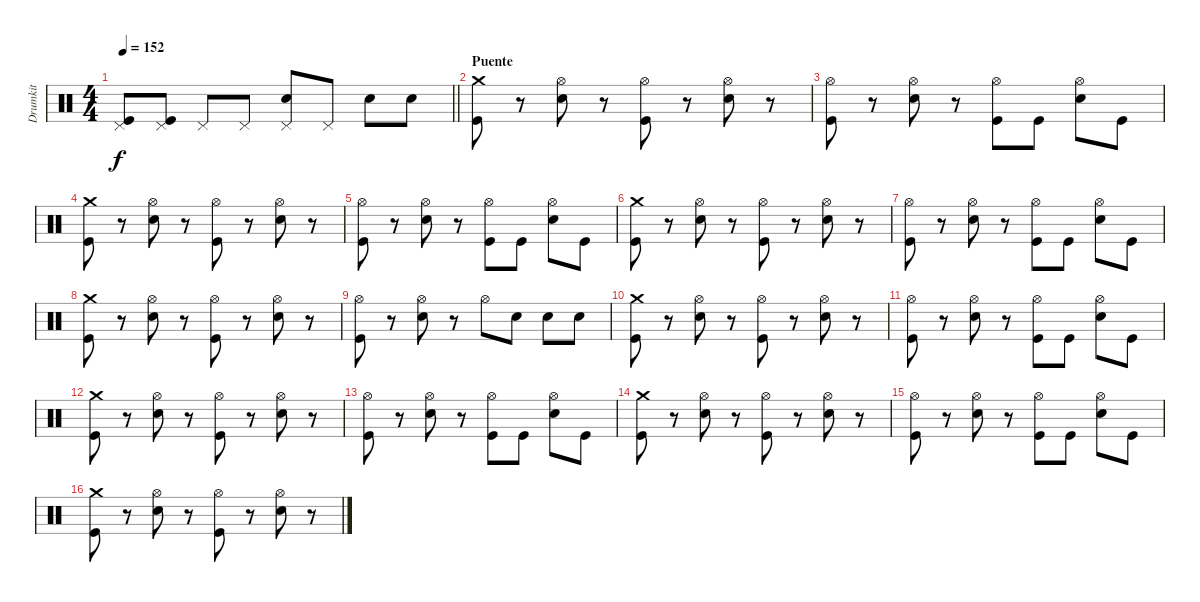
\track ("Drumkit" "Drumkit") {instrument percussion}
\staff {score}
\articulation defaults
\ts (4 4)
\tempo 152
\clef neutral
\barLineRight lightlight
\ks c
("Pedal Hi-Hat (hit)" "Kick (hit)").8{dy f} ("Pedal Hi-Hat (hit)" "Kick (hit)").8 "Pedal Hi-Hat (hit)".8 "Pedal Hi-Hat (hit)".8 ("Pedal Hi-Hat (hit)" "Snare (hit) 2").8 "Pedal Hi-Hat (hit)".8 "Snare (hit) 2".8 "Snare (hit) 2".8 |
\section ("" "Puente")
("Crash medium (hit)" "Kick (hit)").8 r.8 ("Hi-Hat (open)" "Snare (hit) 2").8 r.8 ("Hi-Hat (open)" "Kick (hit)").8 r.8 ("Hi-Hat (open)" "Snare (hit) 2").8 r.8 |
("Hi-Hat (open)" "Kick (hit)").8 r.8 ("Hi-Hat (open)" "Snare (hit) 2").8 r.8 ("Hi-Hat (open)" "Kick (hit)").8 "Kick (hit)".8 ("Hi-Hat (open)" "Snare (hit) 2").8 "Kick (hit)".8 |
("Crash medium (hit)" "Kick (hit)").8 r.8 ("Hi-Hat (open)" "Snare (hit) 2").8 r.8 ("Hi-Hat (open)" "Kick (hit)").8 r.8 ("Hi-Hat (open)" "Snare (hit) 2").8 r.8 |
("Hi-Hat (open)" "Kick (hit)").8 r.8 ("Hi-Hat (open)" "Snare (hit) 2").8 r.8 ("Hi-Hat (open)" "Kick (hit)").8 "Kick (hit)".8 ("Hi-Hat (open)" "Snare (hit) 2").8 "Kick (hit)".8 |
("Crash medium (hit)" "Kick (hit)").8 r.8 ("Hi-Hat (open)" "Snare (hit) 2").8 r.8 ("Hi-Hat (open)" "Kick (hit)").8 r.8 ("Hi-Hat (open)" "Snare (hit) 2").8 r.8 |
("Hi-Hat (open)" "Kick (hit)").8 r.8 ("Hi-Hat (open)" "Snare (hit) 2").8 r.8 ("Hi-Hat (open)" "Kick (hit)").8 "Kick (hit)".8 ("Hi-Hat (open)" "Snare (hit) 2").8 "Kick (hit)".8 |
("Crash medium (hit)" "Kick (hit)").8 r.8 ("Hi-Hat (open)" "Snare (hit) 2").8 r.8 ("Hi-Hat (open)" "Kick (hit)").8 r.8 ("Hi-Hat (open)" "Snare (hit) 2").8 r.8 |
("Hi-Hat (open)" "Kick (hit)").8 r.8 ("Hi-Hat (open)" "Snare (hit) 2").8 r.8 "Hi-Hat (open)".8 "Snare (hit) 2".8 "Snare (hit) 2".8 "Snare (hit) 2".8 |
("Crash medium (hit)" "Kick (hit)").8 r.8 ("Hi-Hat (open)" "Snare (hit) 2").8 r.8 ("Hi-Hat (open)" "Kick (hit)").8 r.8 ("Hi-Hat (open)" "Snare (hit) 2").8 r.8 |
("Hi-Hat (open)" "Kick (hit)").8 r.8 ("Hi-Hat (open)" "Snare (hit) 2").8 r.8 ("Hi-Hat (open)" "Kick (hit)").8 "Kick (hit)".8 ("Hi-Hat (open)" "Snare (hit) 2").8 "Kick (hit)".8 |
("Crash medium (hit)" "Kick (hit)").8 r.8 ("Hi-Hat (open)" "Snare (hit) 2").8 r.8 ("Hi-Hat (open)" "Kick (hit)").8 r.8 ("Hi-Hat (open)" "Snare (hit) 2").8 r.8 |
("Hi-Hat (open)" "Kick (hit)").8 r.8 ("Hi-Hat (open)" "Snare (hit) 2").8 r.8 ("Hi-Hat (open)" "Kick (hit)").8 "Kick (hit)".8 ("Hi-Hat (open)" "Snare (hit) 2").8 "Kick (hit)".8 |
("Crash medium (hit)" "Kick (hit)").8 r.8 ("Hi-Hat (open)" "Snare (hit) 2").8 r.8 ("Hi-Hat (open)" "Kick (hit)").8 r.8 ("Hi-Hat (open)" "Snare (hit) 2").8 r.8 |
("Hi-Hat (open)" "Kick (hit)").8 r.8 ("Hi-Hat (open)" "Snare (hit) 2").8 r.8 ("Hi-Hat (open)" "Kick (hit)").8 "Kick (hit)".8 ("Hi-Hat (open)" "Snare (hit) 2").8 "Kick (hit)".8 |
("Crash medium (hit)" "Kick (hit)").8 r.8 ("Hi-Hat (open)" "Snare (hit) 2").8 r.8 ("Hi-Hat (open)" "Kick (hit)").8 r.8 ("Hi-Hat (open)" "Snare (hit) 2").8 r.8
